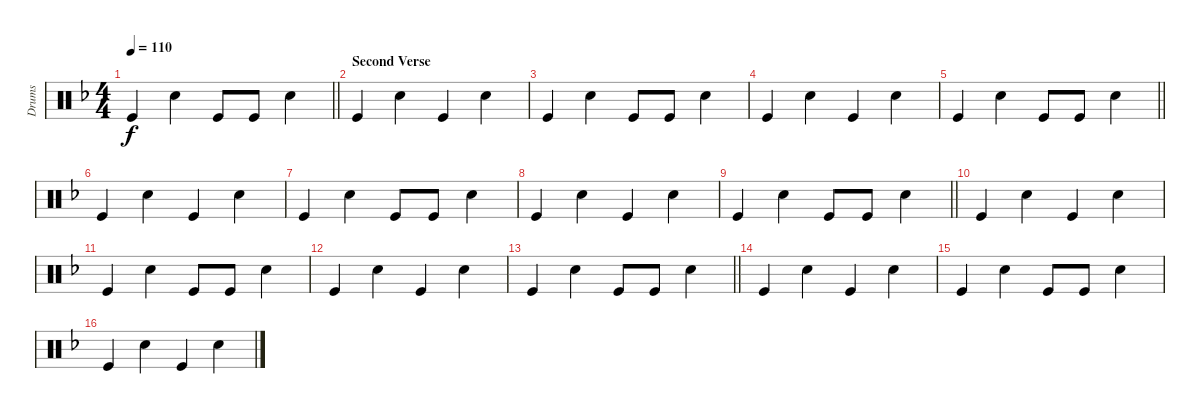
\track ("Drums" "Drums") {instrument percussion}
\staff {score}
\articulation defaults
\ts (4 4)
\tempo 110
\clef neutral
\barLineRight lightlight
\ks dminor "Kick (hit)".4{dy f} "Snare (hit) 2".4 "Kick (hit)".8 "Kick (hit)".8 "Snare (hit) 2".4
|
\section ("" "Second Verse")
"Kick (hit)".4 "Snare (hit) 2".4 "Kick (hit)".4 "Snare (hit) 2".4 |
"Kick (hit)".4 "Snare (hit) 2".4 "Kick (hit)".8 "Kick (hit)".8 "Snare (hit) 2".4 |
"Kick (hit)".4 "Snare (hit) 2".4 "Kick (hit)".4 "Snare (hit) 2".4 |
\barLineRight lightlight "Kick (hit)".4 "Snare (hit) 2".4 "Kick (hit)".8 "Kick (hit)".8 "Snare (hit) 2".4
|
"Kick (hit)".4 "Snare (hit) 2".4 "Kick (hit)".4 "Snare (hit) 2".4 |
"Kick (hit)".4 "Snare (hit) 2".4 "Kick (hit)".8 "Kick (hit)".8 "Snare (hit) 2".4 |
"Kick (hit)".4 "Snare (hit) 2".4 "Kick (hit)".4 "Snare (hit) 2".4 |
\barLineRight lightlight "Kick (hit)".4 "Snare (hit) 2".4 "Kick (hit)".8 "Kick (hit)".8 "Snare (hit) 2".4
|
"Kick (hit)".4 "Snare (hit) 2".4 "Kick (hit)".4 "Snare (hit) 2".4 |
"Kick (hit)".4 "Snare (hit) 2".4 "Kick (hit)".8 "Kick (hit)".8 "Snare (hit) 2".4 |
"Kick (hit)".4 "Snare (hit) 2".4 "Kick (hit)".4 "Snare (hit) 2".4 |
\barLineRight lightlight "Kick (hit)".4 "Snare (hit) 2".4 "Kick (hit)".8 "Kick (hit)".8 "Snare (hit) 2".4
|
"Kick (hit)".4 "Snare (hit) 2".4 "Kick (hit)".4 "Snare (hit) 2".4 |
"Kick (hit)".4 "Snare (hit) 2".4 "Kick (hit)".8 "Kick (hit)".8 "Snare (hit) 2".4 |
"Kick (hit)".4 "Snare (hit) 2".4 "Kick (hit)".4 "Snare (hit) 2".4
